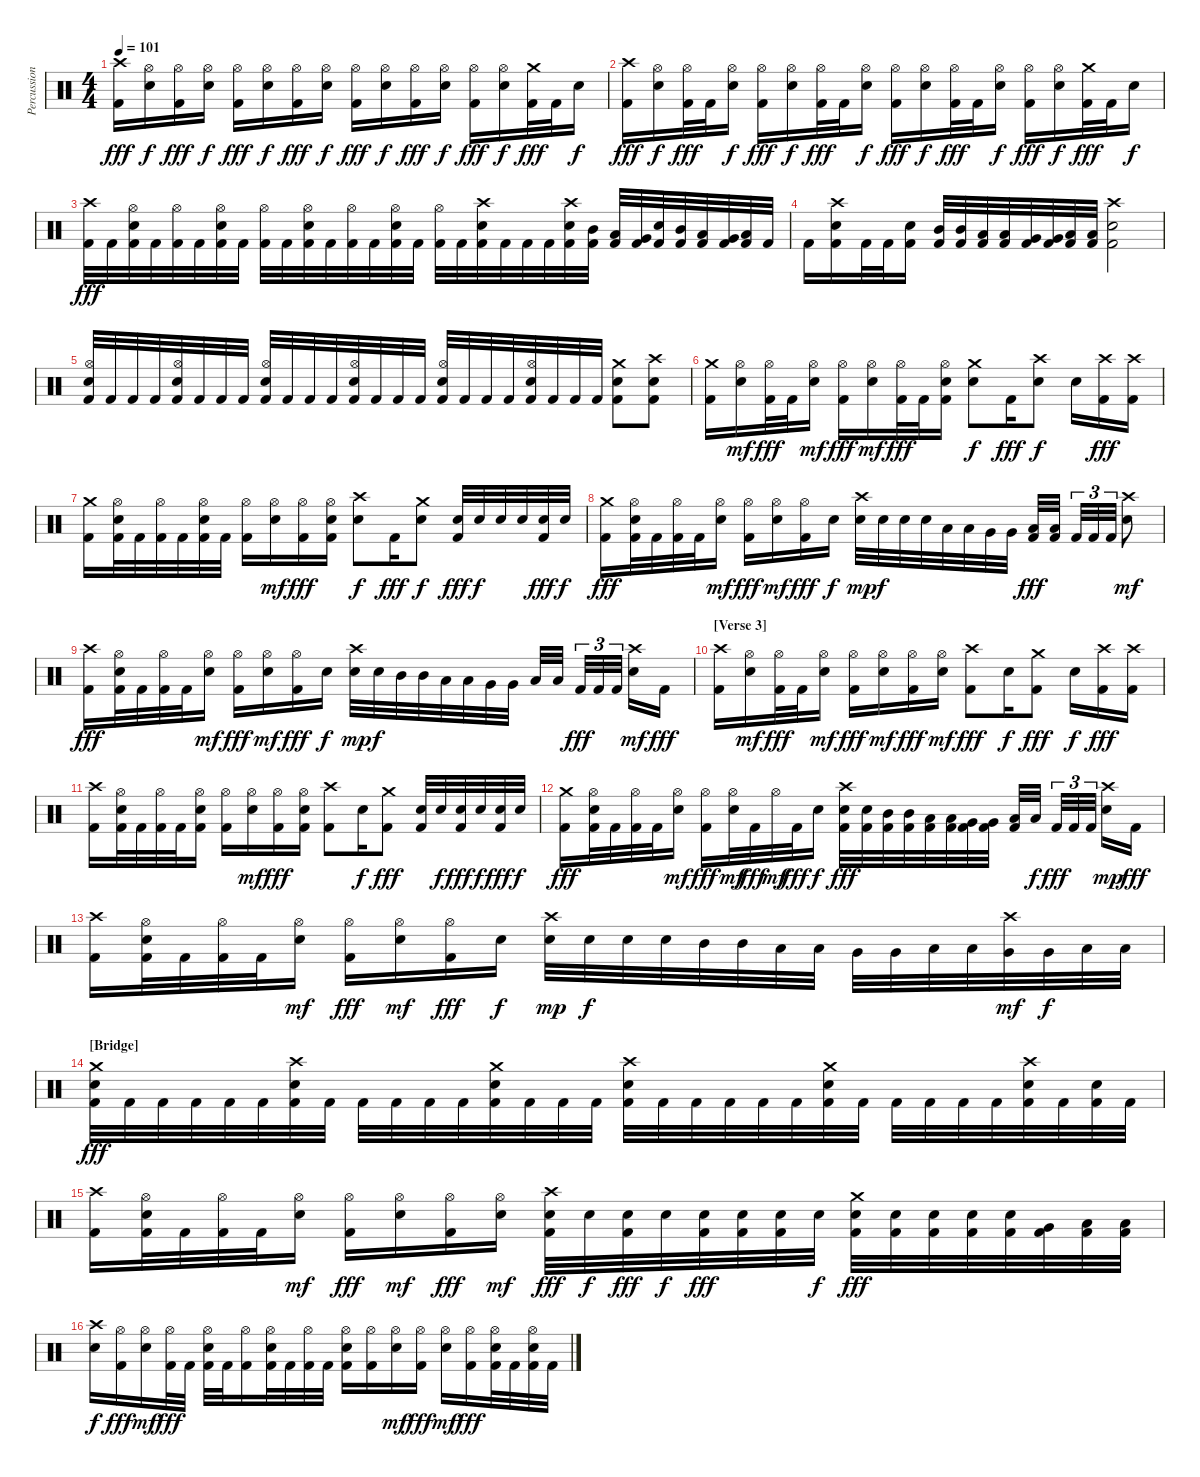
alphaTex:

\track ("Percussion" "Percussion") {instrument percussion}
\staff {score}
\articulation defaults
\ts (4 4)
\tempo 101
\clef neutral
\ks c
("Crash high (hit)" "Kick (hit) 2").16{dy fff} ("Hi-Hat (open)" "Snare (hit) 2").16{dy f} ("Hi-Hat (open)" "Kick (hit) 2").16{dy fff} ("Hi-Hat (open)" "Snare (hit) 2").16{dy f} ("Hi-Hat (open)" "Kick (hit) 2").16{dy fff} ("Hi-Hat (open)" "Snare (hit) 2").16{dy f} ("Hi-Hat (open)" "Kick (hit) 2").16{dy fff} ("Hi-Hat (open)" "Snare (hit) 2").16{dy f} ("Hi-Hat (open)" "Kick (hit) 2").16{dy fff} ("Hi-Hat (open)" "Snare (hit) 2").16{dy f} ("Hi-Hat (open)" "Kick (hit) 2").16{dy fff} ("Hi-Hat (open)" "Snare (hit) 2").16{dy f} ("Hi-Hat (open)" "Kick (hit) 2").16{dy fff} ("Hi-Hat (open)" "Snare (hit) 2").16{dy f} ("Crash medium (hit)" "Kick (hit) 2").32{dy fff} "Kick (hit) 2".32 "Snare (hit) 2".16{dy f} |
("Crash high (hit)" "Kick (hit) 2").16{dy fff} ("Hi-Hat (open)" "Snare (hit) 2").16{dy f} ("Hi-Hat (open)" "Kick (hit) 2").32{dy fff} "Kick (hit) 2".32 ("Hi-Hat (open)" "Snare (hit) 2").16{dy f} ("Hi-Hat (open)" "Kick (hit) 2").16{dy fff} ("Hi-Hat (open)" "Snare (hit) 2").16{dy f} ("Hi-Hat (open)" "Kick (hit) 2").32{dy fff} "Kick (hit) 2".32 ("Hi-Hat (open)" "Snare (hit) 2").16{dy f} ("Hi-Hat (open)" "Kick (hit) 2").16{dy fff} ("Hi-Hat (open)" "Snare (hit) 2").16{dy f} ("Hi-Hat (open)" "Kick (hit) 2").32{dy fff} "Kick (hit) 2".32 ("Hi-Hat (open)" "Snare (hit) 2").16{dy f} ("Hi-Hat (open)" "Kick (hit) 2").16{dy fff} ("Hi-Hat (open)" "Snare (hit) 2").16{dy f} ("Crash medium (hit)" "Kick (hit) 2").32{dy fff} "Kick (hit) 2".32 "Snare (hit) 2".16{dy f} |
("Crash high (hit)" "Kick (hit) 2").32{dy fff} "Kick (hit) 2".32 ("Hi-Hat (open)" "Snare (hit) 2" "Kick (hit) 2").32 "Kick (hit) 2".32 ("Hi-Hat (open)" "Kick (hit) 2").32 "Kick (hit) 2".32 ("Hi-Hat (open)" "Snare (hit) 2" "Kick (hit) 2").32 "Kick (hit) 2".32 ("Hi-Hat (open)" "Kick (hit) 2").32 "Kick (hit) 2".32 ("Hi-Hat (open)" "Snare (hit) 2" "Kick (hit) 2").32 "Kick (hit) 2".32 ("Hi-Hat (open)" "Kick (hit) 2").32 "Kick (hit) 2".32 ("Hi-Hat (open)" "Snare (hit) 2" "Kick (hit) 2").32 "Kick (hit) 2".32 ("Hi-Hat (open)" "Kick (hit) 2").32 "Kick (hit) 2".32 ("Crash high (hit)" "Snare (hit) 2" "Kick (hit) 2").32 "Kick (hit) 2".32 "Kick (hit) 2".32 "Kick (hit) 2".32 ("Crash high (hit)" "Snare (hit) 2" "Kick (hit) 2").32 ("Mid Tom (hit)" "Kick (hit) 2").32 ("Low Tom (hit)" "Kick (hit) 2").32 ("Very Low Tom (hit)" "Kick (hit) 2").32 ("Snare (hit) 2" "Kick (hit) 2").32 ("Mid Tom (hit)" "Kick (hit) 2").32 ("Low Tom (hit)" "Kick (hit) 2").32 ("Very Low Tom (hit)" "Kick (hit) 2").32 ("Low Floor Tom (hit)" "Kick (hit) 2").32 "Kick (hit) 2".32 |
"Kick (hit) 2".16 ("Crash high (hit)" "Snare (hit) 2" "Kick (hit) 2").16 "Kick (hit) 2".32 "Kick (hit) 2".32 ("Snare (hit) 2" "Kick (hit) 2").16 ("Mid Tom (hit)" "Kick (hit) 2").32 ("Mid Tom (hit)" "Kick (hit) 2").32 ("Low Tom (hit)" "Kick (hit) 2").32 ("Low Tom (hit)" "Kick (hit) 2").32 ("Very Low Tom (hit)" "Kick (hit) 2").32 ("Very Low Tom (hit)" "Kick (hit) 2").32 ("Low Floor Tom (hit)" "Kick (hit) 2").32 ("Low Floor Tom (hit)" "Kick (hit) 2").32 ("Crash high (hit)" "Snare (hit) 2" "Kick (hit) 2").2 |
("Hi-Hat (open)" "Snare (hit) 2" "Kick (hit) 2").32 "Kick (hit) 2".32 "Kick (hit) 2".32 "Kick (hit) 2".32 ("Hi-Hat (open)" "Snare (hit) 2" "Kick (hit) 2").32 "Kick (hit) 2".32 "Kick (hit) 2".32 "Kick (hit) 2".32 ("Hi-Hat (open)" "Snare (hit) 2" "Kick (hit) 2").32 "Kick (hit) 2".32 "Kick (hit) 2".32 "Kick (hit) 2".32 ("Hi-Hat (open)" "Snare (hit) 2" "Kick (hit) 2").32 "Kick (hit) 2".32 "Kick (hit) 2".32 "Kick (hit) 2".32 ("Hi-Hat (open)" "Snare (hit) 2" "Kick (hit) 2").32 "Kick (hit) 2".32 "Kick (hit) 2".32 "Kick (hit) 2".32 ("Hi-Hat (open)" "Snare (hit) 2" "Kick (hit) 2").32 "Kick (hit) 2".32 "Kick (hit) 2".32 "Kick (hit) 2".32 ("Crash medium (hit)" "Snare (hit) 2" "Kick (hit) 2").8 ("Crash high (hit)" "Snare (hit) 2" "Kick (hit) 2").8 |
\section ("" "")
("Crash medium (hit)" "Kick (hit) 2").16 ("Hi-Hat (open)" "Snare (hit) 2").16{dy mf} ("Hi-Hat (open)" "Kick (hit) 2").32{dy fff} "Kick (hit) 2".32 ("Hi-Hat (open)" "Snare (hit) 2").16{dy mf} ("Hi-Hat (open)" "Kick (hit) 2").16{dy fff} ("Hi-Hat (open)" "Snare (hit) 2").16{dy mf} ("Hi-Hat (open)" "Kick (hit) 2").32{dy fff} "Kick (hit) 2".32 ("Hi-Hat (open)" "Snare (hit) 2" "Kick (hit) 2").16 ("Crash medium (hit)" "Snare (hit) 2").8{dy f} "Kick (hit) 2".16{dy fff} ("Crash high (hit)" "Snare (hit) 2").8{dy f} "Snare (hit) 2".16 ("Crash high (hit)" "Kick (hit) 2").16{dy fff} ("Crash high (hit)" "Kick (hit) 2").16 |
("Crash medium (hit)" "Kick (hit) 2").16 ("Hi-Hat (open)" "Snare (hit) 2" "Kick (hit) 2").32 "Kick (hit) 2".32 ("Hi-Hat (open)" "Kick (hit) 2").32 "Kick (hit) 2".32 ("Hi-Hat (open)" "Snare (hit) 2" "Kick (hit) 2").32 "Kick (hit) 2".32 ("Hi-Hat (open)" "Kick (hit) 2").16 ("Hi-Hat (open)" "Snare (hit) 2").16{dy mf} ("Hi-Hat (open)" "Kick (hit) 2").16{dy fff} ("Hi-Hat (open)" "Snare (hit) 2" "Kick (hit) 2").16 ("Crash high (hit)" "Snare (hit) 2").8{dy f} "Kick (hit) 2".16{dy fff} ("Crash medium (hit)" "Snare (hit) 2").8{dy f} ("Snare (hit) 2" "Kick (hit) 2").32{dy fff} "Snare (hit) 2".32{dy f} "Snare (hit) 2".32 "Snare (hit) 2".32 ("Snare (hit) 2" "Kick (hit) 2").32{dy fff} "Snare (hit) 2".32{dy f} |
("Crash medium (hit)" "Kick (hit) 2").16{dy fff} ("Hi-Hat (open)" "Snare (hit) 2" "Kick (hit) 2").32 "Kick (hit) 2".32 ("Hi-Hat (open)" "Kick (hit) 2").32 "Kick (hit) 2".32 ("Hi-Hat (open)" "Snare (hit) 2").16{dy mf} ("Hi-Hat (open)" "Kick (hit) 2").16{dy fff} ("Hi-Hat (open)" "Snare (hit) 2").16{dy mf} ("Hi-Hat (open)" "Kick (hit) 2").16{dy fff} "Snare (hit) 2".16{dy f} ("Crash high (hit)" "Snare (hit) 2").32{dy mp} "Snare (hit) 2".32{dy f} "Snare (hit) 2".32 "Snare (hit) 2".32 "Low Tom (hit)".32 "Low Tom (hit)".32 "Very Low Tom (hit)".32 "Very Low Tom (hit)".32 ("Low Floor Tom (hit)" "Kick (hit) 2").32{dy fff} ("Low Floor Tom (hit)" "Kick (hit) 2").32 "Kick (hit) 2".32{tu (3 2)} "Kick (hit) 2".32{tu (3 2)} "Kick (hit) 2".32{tu (3 2)} ("Crash high (hit)" "Snare (hit) 2").8{dy mf} |
("Crash high (hit)" "Kick (hit) 2").16{dy fff} ("Hi-Hat (open)" "Snare (hit) 2" "Kick (hit) 2").32 "Kick (hit) 2".32 ("Hi-Hat (open)" "Kick (hit) 2").32 "Kick (hit) 2".32 ("Hi-Hat (open)" "Snare (hit) 2").16{dy mf} ("Hi-Hat (open)" "Kick (hit) 2").16{dy fff} ("Hi-Hat (open)" "Snare (hit) 2").16{dy mf} ("Hi-Hat (open)" "Kick (hit) 2").16{dy fff} "Snare (hit) 2".16{dy f} ("Crash high (hit)" "Snare (hit) 2").32{dy mp} "Snare (hit) 2".32{dy f} "Mid Tom (hit)".32 "Mid Tom (hit)".32 "Low Tom (hit)".32 "Low Tom (hit)".32 "Very Low Tom (hit)".32 "Very Low Tom (hit)".32 "Low Floor Tom (hit)".32 "Low Floor Tom (hit)".32 "Kick (hit) 2".32{tu (3 2) dy fff} "Kick (hit) 2".32{tu (3 2)} "Kick (hit) 2".32{tu (3 2)} ("Crash high (hit)" "Snare (hit) 2").16{dy mf} "Kick (hit) 2".16{dy fff} |
\section ("" "[Verse 3]")
("Crash high (hit)" "Kick (hit) 2").16 ("Hi-Hat (open)" "Snare (hit) 2").16{dy mf} ("Hi-Hat (open)" "Kick (hit) 2").32{dy fff} "Kick (hit) 2".32 ("Hi-Hat (open)" "Snare (hit) 2").16{dy mf} ("Hi-Hat (open)" "Kick (hit) 2").16{dy fff} ("Hi-Hat (open)" "Snare (hit) 2").16{dy mf} ("Hi-Hat (open)" "Kick (hit) 2").16{dy fff} ("Hi-Hat (open)" "Snare (hit) 2").16{dy mf} ("Crash high (hit)" "Kick (hit) 2").8{dy fff} "Snare (hit) 2".16{dy f} ("Crash medium (hit)" "Kick (hit) 2").8{dy fff} "Snare (hit) 2".16{dy f} ("Crash high (hit)" "Kick (hit) 2").16{dy fff} ("Crash high (hit)" "Kick (hit) 2").16 |
("Crash high (hit)" "Kick (hit) 2").16 ("Hi-Hat (open)" "Snare (hit) 2" "Kick (hit) 2").32 "Kick (hit) 2".32 ("Hi-Hat (open)" "Kick (hit) 2").32 "Kick (hit) 2".32 ("Hi-Hat (open)" "Snare (hit) 2" "Kick (hit) 2").16 ("Hi-Hat (open)" "Kick (hit) 2").16 ("Hi-Hat (open)" "Snare (hit) 2").16{dy mf} ("Hi-Hat (open)" "Kick (hit) 2").16{dy fff} ("Hi-Hat (open)" "Snare (hit) 2" "Kick (hit) 2").16 ("Crash high (hit)" "Kick (hit) 2").8 "Snare (hit) 2".16{dy f} ("Crash medium (hit)" "Kick (hit) 2").8{dy fff} ("Snare (hit) 2" "Kick (hit) 2").32 "Snare (hit) 2".32{dy f} ("Snare (hit) 2" "Kick (hit) 2").32{dy fff} "Snare (hit) 2".32{dy f} ("Snare (hit) 2" "Kick (hit) 2").32{dy fff} "Snare (hit) 2".32{dy f} |
("Crash medium (hit)" "Kick (hit) 2").16{dy fff} ("Hi-Hat (open)" "Snare (hit) 2" "Kick (hit) 2").32 "Kick (hit) 2".32 ("Hi-Hat (open)" "Kick (hit) 2").32 "Kick (hit) 2".32 ("Hi-Hat (open)" "Snare (hit) 2").16{dy mf} ("Hi-Hat (open)" "Kick (hit) 2").16{dy fff} ("Hi-Hat (open)" "Snare (hit) 2").32{dy mf} "Kick (hit) 2".32{dy fff} "Hi-Hat (open)".32{dy mf} "Kick (hit) 2".32{dy fff} "Snare (hit) 2".16{dy f} ("Crash high (hit)" "Snare (hit) 2" "Kick (hit) 2").32{dy fff} ("Snare (hit) 2" "Kick (hit) 2").32 ("Mid Tom (hit)" "Kick (hit) 2").32 ("Mid Tom (hit)" "Kick (hit) 2").32 ("Low Tom (hit)" "Kick (hit) 2").32 ("Low Tom (hit)" "Kick (hit) 2").32 ("Very Low Tom (hit)" "Kick (hit) 2").32 ("Very Low Tom (hit)" "Kick (hit) 2").32 ("Low Floor Tom (hit)" "Kick (hit) 2").32 "Low Floor Tom (hit)".32{dy f} "Kick (hit) 2".32{tu (3 2) dy fff} "Kick (hit) 2".32{tu (3 2)} "Kick (hit) 2".32{tu (3 2)} ("Crash high (hit)" "Snare (hit) 2").16{dy mp} "Kick (hit) 2".16{dy fff} |
("Crash high (hit)" "Kick (hit) 2").16 ("Hi-Hat (open)" "Snare (hit) 2" "Kick (hit) 2").32 "Kick (hit) 2".32 ("Hi-Hat (open)" "Kick (hit) 2").32 "Kick (hit) 2".32 ("Hi-Hat (open)" "Snare (hit) 2").16{dy mf} ("Hi-Hat (open)" "Kick (hit) 2").16{dy fff} ("Hi-Hat (open)" "Snare (hit) 2").16{dy mf} ("Hi-Hat (open)" "Kick (hit) 2").16{dy fff} "Snare (hit) 2".16{dy f} ("Crash high (hit)" "Snare (hit) 2").32{dy mp} "Snare (hit) 2".32{dy f} "Snare (hit) 2".32 "Snare (hit) 2".32 "Mid Tom (hit)".32 "Mid Tom (hit)".32 "Low Tom (hit)".32 "Low Tom (hit)".32 "Very Low Tom (hit)".32 "Very Low Tom (hit)".32 "Low Tom (hit)".32 "Low Tom (hit)".32 ("Crash high (hit)" "Very Low Tom (hit)").32{dy mf} "Very Low Tom (hit)".32{dy f} "Low Floor Tom (hit)".32 "Low Floor Tom (hit)".32 |
\section ("" "[Bridge]")
("Crash medium (hit)" "Snare (hit) 2" "Kick (hit) 2").32{dy fff} "Kick (hit) 2".32 "Kick (hit) 2".32 "Kick (hit) 2".32 "Kick (hit) 2".32 "Kick (hit) 2".32 ("Crash high (hit)" "Snare (hit) 2" "Kick (hit) 2").32 "Kick (hit) 2".32 "Kick (hit) 2".32 "Kick (hit) 2".32 "Kick (hit) 2".32 "Kick (hit) 2".32 ("Crash medium (hit)" "Snare (hit) 2" "Kick (hit) 2").32 "Kick (hit) 2".32 "Kick (hit) 2".32 "Kick (hit) 2".32 ("Crash high (hit)" "Snare (hit) 2" "Kick (hit) 2").32 "Kick (hit) 2".32 "Kick (hit) 2".32 "Kick (hit) 2".32 "Kick (hit) 2".32 "Kick (hit) 2".32 ("Crash medium (hit)" "Snare (hit) 2" "Kick (hit) 2").32 "Kick (hit) 2".32 "Kick (hit) 2".32 "Kick (hit) 2".32 "Kick (hit) 2".32 "Kick (hit) 2".32 ("Crash high (hit)" "Snare (hit) 2" "Kick (hit) 2").32 "Kick (hit) 2".32 ("Snare (hit) 2" "Kick (hit) 2").32 "Kick (hit) 2".32 |
("Crash high (hit)" "Kick (hit) 2").16 ("Hi-Hat (open)" "Snare (hit) 2" "Kick (hit) 2").32 "Kick (hit) 2".32 ("Hi-Hat (open)" "Kick (hit) 2").32 "Kick (hit) 2".32 ("Hi-Hat (open)" "Snare (hit) 2").16{dy mf} ("Hi-Hat (open)" "Kick (hit) 2").16{dy fff} ("Hi-Hat (open)" "Snare (hit) 2").16{dy mf} ("Hi-Hat (open)" "Kick (hit) 2").16{dy fff} ("Hi-Hat (open)" "Snare (hit) 2").16{dy mf} ("Crash high (hit)" "Snare (hit) 2" "Kick (hit) 2").32{dy fff} "Snare (hit) 2".32{dy f} ("Snare (hit) 2" "Kick (hit) 2").32{dy fff} "Snare (hit) 2".32{dy f} ("Snare (hit) 2" "Kick (hit) 2").32{dy fff} ("Snare (hit) 2" "Kick (hit) 2").32 ("Snare (hit) 2" "Kick (hit) 2").32 "Snare (hit) 2".32{dy f} ("Crash medium (hit)" "Snare (hit) 2" "Kick (hit) 2").32{dy fff} ("Snare (hit) 2" "Kick (hit) 2").32 ("Snare (hit) 2" "Kick (hit) 2").32 ("Snare (hit) 2" "Kick (hit) 2").32 ("Snare (hit) 2" "Kick (hit) 2").32 ("Very Low Tom (hit)" "Kick (hit) 2").32 ("Low Floor Tom (hit)" "Kick (hit) 2").32 ("Low Floor Tom (hit)" "Kick (hit) 2").32 |
("Crash high (hit)" "Snare (hit) 2").16{dy f} ("Hi-Hat (open)" "Kick (hit) 2").16{dy fff} ("Hi-Hat (open)" "Snare (hit) 2").16{dy mf} ("Hi-Hat (open)" "Kick (hit) 2").32{dy fff} "Kick (hit) 2".32 ("Hi-Hat (open)" "Snare (hit) 2" "Kick (hit) 2").32 "Kick (hit) 2".32 ("Hi-Hat (open)" "Kick (hit) 2").16 ("Hi-Hat (open)" "Snare (hit) 2" "Kick (hit) 2").32 "Kick (hit) 2".32 ("Hi-Hat (open)" "Kick (hit) 2").32 "Kick (hit) 2".32 ("Hi-Hat (open)" "Snare (hit) 2" "Kick (hit) 2").16 ("Hi-Hat (open)" "Kick (hit) 2").16 ("Hi-Hat (open)" "Snare (hit) 2").16{dy mf} ("Hi-Hat (open)" "Kick (hit) 2").16{dy fff} ("Hi-Hat (open)" "Snare (hit) 2").16{dy mf} ("Hi-Hat (open)" "Kick (hit) 2").16{dy fff} ("Hi-Hat (open)" "Snare (hit) 2" "Kick (hit) 2").32 "Kick (hit) 2".32 ("Hi-Hat (open)" "Snare (hit) 2" "Kick (hit) 2").32 "Kick (hit) 2".32
